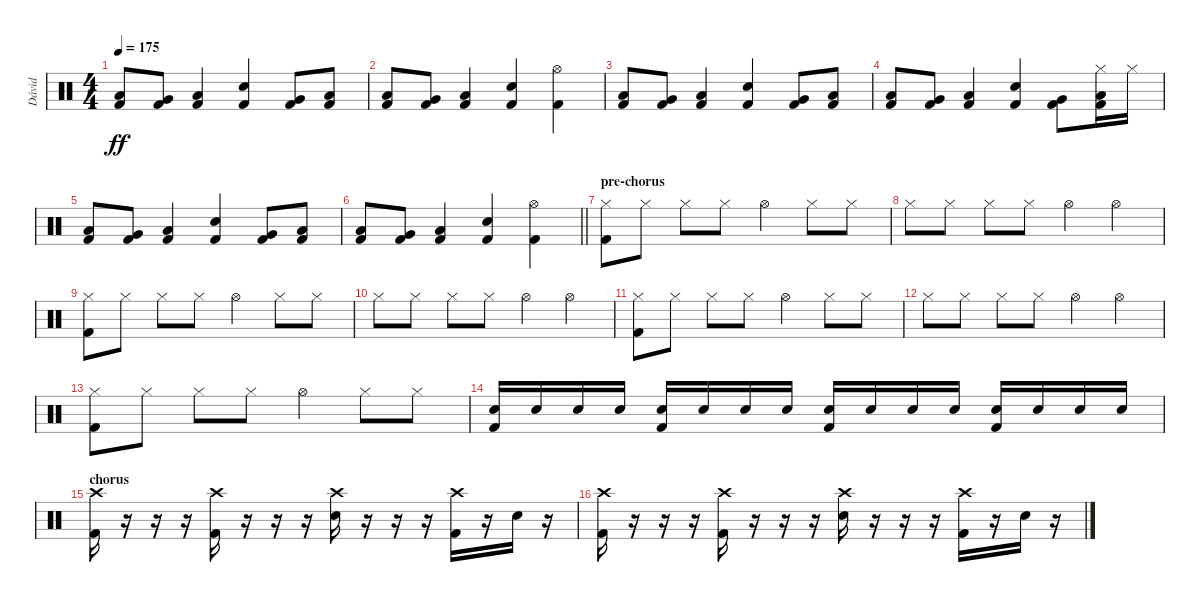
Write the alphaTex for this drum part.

\track ("Dávid" "Dávid") {instrument percussion}
\staff {score}
\articulation defaults
\ts (4 4)
\tempo 175
\clef neutral
\ks c
("Low Tom (hit)" "Kick (hit) 2").8{dy ff} ("Very Low Tom (hit)" "Kick (hit) 2").8 ("Low Floor Tom (hit)" "Kick (hit) 2").4 ("Electric Snare (hit)" "Kick (hit) 2").4 ("Very Low Tom (hit)" "Kick (hit) 2").8 ("Low Floor Tom (hit)" "Kick (hit) 2").8 |
("Low Tom (hit)" "Kick (hit) 2").8 ("Very Low Tom (hit)" "Kick (hit) 2").8 ("Low Floor Tom (hit)" "Kick (hit) 2").4 ("Electric Snare (hit)" "Kick (hit) 2").4 ("Hi-Hat (open)" "Kick (hit) 2").4 |
("Low Tom (hit)" "Kick (hit) 2").8 ("Very Low Tom (hit)" "Kick (hit) 2").8 ("Low Floor Tom (hit)" "Kick (hit) 2").4 ("Electric Snare (hit)" "Kick (hit) 2").4 ("Very Low Tom (hit)" "Kick (hit) 2").8 ("Low Floor Tom (hit)" "Kick (hit) 2").8 |
("Low Tom (hit)" "Kick (hit) 2").8 ("Very Low Tom (hit)" "Kick (hit) 2").8 ("Low Floor Tom (hit)" "Kick (hit) 2").4 ("Electric Snare (hit)" "Kick (hit) 2").4 ("Very Low Tom (hit)" "Kick (hit) 2").8 ("Low Floor Tom (hit)" "Hi-Hat (closed)" "Kick (hit) 2").16 "Hi-Hat (closed)".16 |
("Low Tom (hit)" "Kick (hit) 2").8 ("Very Low Tom (hit)" "Kick (hit) 2").8 ("Low Floor Tom (hit)" "Kick (hit) 2").4 ("Electric Snare (hit)" "Kick (hit) 2").4 ("Very Low Tom (hit)" "Kick (hit) 2").8 ("Low Floor Tom (hit)" "Kick (hit) 2").8 |
\barLineRight lightlight
("Low Tom (hit)" "Kick (hit) 2").8 ("Very Low Tom (hit)" "Kick (hit) 2").8 ("Low Floor Tom (hit)" "Kick (hit) 2").4 ("Electric Snare (hit)" "Kick (hit) 2").4 ("Hi-Hat (open)" "Kick (hit) 2").4 |
\section ("" "pre-chorus")
("Hi-Hat (closed)" "Kick (hit) 2").8 "Hi-Hat (closed)".8 "Hi-Hat (closed)".8 "Hi-Hat (closed)".8 "Hi-Hat (open)".4 "Hi-Hat (closed)".8 "Hi-Hat (closed)".8 |
"Hi-Hat (closed)".8 "Hi-Hat (closed)".8 "Hi-Hat (closed)".8 "Hi-Hat (closed)".8 "Hi-Hat (open)".4 "Hi-Hat (open)".4 |
("Hi-Hat (closed)" "Kick (hit) 2").8 "Hi-Hat (closed)".8 "Hi-Hat (closed)".8 "Hi-Hat (closed)".8 "Hi-Hat (open)".4 "Hi-Hat (closed)".8 "Hi-Hat (closed)".8 |
"Hi-Hat (closed)".8 "Hi-Hat (closed)".8 "Hi-Hat (closed)".8 "Hi-Hat (closed)".8 "Hi-Hat (open)".4 "Hi-Hat (open)".4 |
("Hi-Hat (closed)" "Kick (hit) 2").8 "Hi-Hat (closed)".8 "Hi-Hat (closed)".8 "Hi-Hat (closed)".8 "Hi-Hat (open)".4 "Hi-Hat (closed)".8 "Hi-Hat (closed)".8 |
"Hi-Hat (closed)".8 "Hi-Hat (closed)".8 "Hi-Hat (closed)".8 "Hi-Hat (closed)".8 "Hi-Hat (open)".4 "Hi-Hat (open)".4 |
("Hi-Hat (closed)" "Kick (hit) 2").8 "Hi-Hat (closed)".8 "Hi-Hat (closed)".8 "Hi-Hat (closed)".8 "Hi-Hat (open)".4 "Hi-Hat (closed)".8 "Hi-Hat (closed)".8 |
("Electric Snare (hit)" "Kick (hit) 2").16 "Electric Snare (hit)".16 "Electric Snare (hit)".16 "Electric Snare (hit)".16 ("Electric Snare (hit)" "Kick (hit) 2").16 "Electric Snare (hit)".16 "Electric Snare (hit)".16 "Electric Snare (hit)".16 ("Electric Snare (hit)" "Kick (hit) 2").16 "Electric Snare (hit)".16 "Electric Snare (hit)".16 "Electric Snare (hit)".16 ("Electric Snare (hit)" "Kick (hit) 2").16 "Electric Snare (hit)".16 "Electric Snare (hit)".16 "Electric Snare (hit)".16 |
\section ("" "chorus")
("Crash high (hit)" "Kick (hit) 2").16 r.16 r.16 r.16 ("Crash high (hit)" "Kick (hit) 2").16 r.16 r.16 r.16 ("Crash high (hit)" "Electric Snare (hit)").16 r.16 r.16 r.16 ("Crash high (hit)" "Kick (hit) 2").16 r.16 "Electric Snare (hit)".16 r.16 |
("Crash high (hit)" "Kick (hit) 2").16 r.16 r.16 r.16 ("Crash high (hit)" "Kick (hit) 2").16 r.16 r.16 r.16 ("Crash high (hit)" "Electric Snare (hit)").16 r.16 r.16 r.16 ("Crash high (hit)" "Kick (hit) 2").16 r.16 "Electric Snare (hit)".16 r.16
